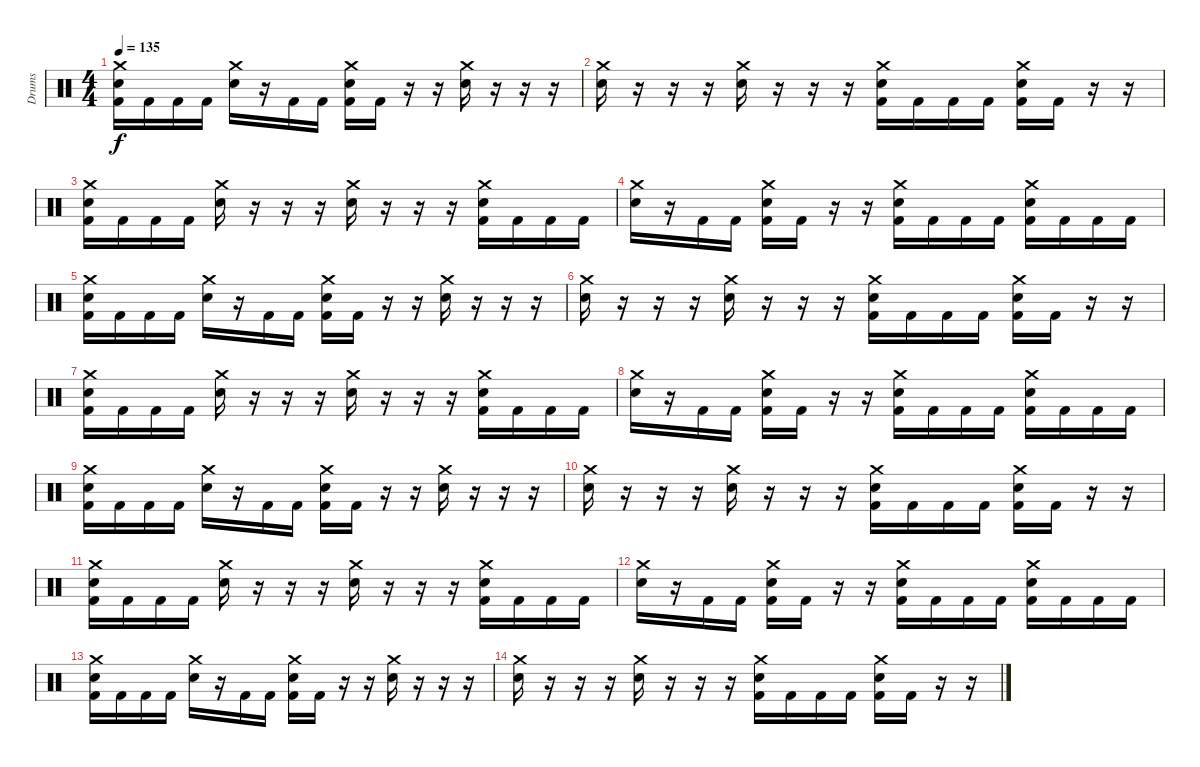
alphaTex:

\track ("Drums" "Drums") {instrument percussion}
\staff {score}
\articulation defaults
\ts (4 4)
\tempo 135
\clef neutral
\ks c
("Crash medium (hit)" "Snare (hit) 2" "Kick (hit) 2").16{dy f} "Kick (hit) 2".16 "Kick (hit) 2".16 "Kick (hit) 2".16 ("Crash medium (hit)" "Snare (hit) 2").16 r.16 "Kick (hit) 2".16 "Kick (hit) 2".16 ("Crash medium (hit)" "Snare (hit) 2" "Kick (hit) 2").16 "Kick (hit) 2".16 r.16 r.16 ("Crash medium (hit)" "Snare (hit) 2").16 r.16 r.16 r.16 |
("Crash medium (hit)" "Snare (hit) 2").16 r.16 r.16 r.16 ("Crash medium (hit)" "Snare (hit) 2").16 r.16 r.16 r.16 ("Crash medium (hit)" "Snare (hit) 2" "Kick (hit) 2").16 "Kick (hit) 2".16 "Kick (hit) 2".16 "Kick (hit) 2".16 ("Crash medium (hit)" "Snare (hit) 2" "Kick (hit) 2").16 "Kick (hit) 2".16 r.16 r.16 |
("Crash medium (hit)" "Snare (hit) 2" "Kick (hit) 2").16 "Kick (hit) 2".16 "Kick (hit) 2".16 "Kick (hit) 2".16 ("Crash medium (hit)" "Snare (hit) 2").16 r.16 r.16 r.16 ("Crash medium (hit)" "Snare (hit) 2").16 r.16 r.16 r.16 ("Crash medium (hit)" "Snare (hit) 2" "Kick (hit) 2").16 "Kick (hit) 2".16 "Kick (hit) 2".16 "Kick (hit) 2".16 |
("Crash medium (hit)" "Snare (hit) 2").16 r.16 "Kick (hit) 2".16 "Kick (hit) 2".16 ("Crash medium (hit)" "Snare (hit) 2" "Kick (hit) 2").16 "Kick (hit) 2".16 r.16 r.16 ("Crash medium (hit)" "Snare (hit) 2" "Kick (hit) 2").16 "Kick (hit) 2".16 "Kick (hit) 2".16 "Kick (hit) 2".16 ("Crash medium (hit)" "Snare (hit) 2" "Kick (hit) 2").16 "Kick (hit) 2".16 "Kick (hit) 2".16 "Kick (hit) 2".16 |
("Crash medium (hit)" "Snare (hit) 2" "Kick (hit) 2").16 "Kick (hit) 2".16 "Kick (hit) 2".16 "Kick (hit) 2".16 ("Crash medium (hit)" "Snare (hit) 2").16 r.16 "Kick (hit) 2".16 "Kick (hit) 2".16 ("Crash medium (hit)" "Snare (hit) 2" "Kick (hit) 2").16 "Kick (hit) 2".16 r.16 r.16 ("Crash medium (hit)" "Snare (hit) 2").16 r.16 r.16 r.16 |
("Crash medium (hit)" "Snare (hit) 2").16 r.16 r.16 r.16 ("Crash medium (hit)" "Snare (hit) 2").16 r.16 r.16 r.16 ("Crash medium (hit)" "Snare (hit) 2" "Kick (hit) 2").16 "Kick (hit) 2".16 "Kick (hit) 2".16 "Kick (hit) 2".16 ("Crash medium (hit)" "Snare (hit) 2" "Kick (hit) 2").16 "Kick (hit) 2".16 r.16 r.16 |
("Crash medium (hit)" "Snare (hit) 2" "Kick (hit) 2").16 "Kick (hit) 2".16 "Kick (hit) 2".16 "Kick (hit) 2".16 ("Crash medium (hit)" "Snare (hit) 2").16 r.16 r.16 r.16 ("Crash medium (hit)" "Snare (hit) 2").16 r.16 r.16 r.16 ("Crash medium (hit)" "Snare (hit) 2" "Kick (hit) 2").16 "Kick (hit) 2".16 "Kick (hit) 2".16 "Kick (hit) 2".16 |
("Crash medium (hit)" "Snare (hit) 2").16 r.16 "Kick (hit) 2".16 "Kick (hit) 2".16 ("Crash medium (hit)" "Snare (hit) 2" "Kick (hit) 2").16 "Kick (hit) 2".16 r.16 r.16 ("Crash medium (hit)" "Snare (hit) 2" "Kick (hit) 2").16 "Kick (hit) 2".16 "Kick (hit) 2".16 "Kick (hit) 2".16 ("Crash medium (hit)" "Snare (hit) 2" "Kick (hit) 2").16 "Kick (hit) 2".16 "Kick (hit) 2".16 "Kick (hit) 2".16 |
("Crash medium (hit)" "Snare (hit) 2" "Kick (hit) 2").16 "Kick (hit) 2".16 "Kick (hit) 2".16 "Kick (hit) 2".16 ("Crash medium (hit)" "Snare (hit) 2").16 r.16 "Kick (hit) 2".16 "Kick (hit) 2".16 ("Crash medium (hit)" "Snare (hit) 2" "Kick (hit) 2").16 "Kick (hit) 2".16 r.16 r.16 ("Crash medium (hit)" "Snare (hit) 2").16 r.16 r.16 r.16 |
("Crash medium (hit)" "Snare (hit) 2").16 r.16 r.16 r.16 ("Crash medium (hit)" "Snare (hit) 2").16 r.16 r.16 r.16 ("Crash medium (hit)" "Snare (hit) 2" "Kick (hit) 2").16 "Kick (hit) 2".16 "Kick (hit) 2".16 "Kick (hit) 2".16 ("Crash medium (hit)" "Snare (hit) 2" "Kick (hit) 2").16 "Kick (hit) 2".16 r.16 r.16 |
("Crash medium (hit)" "Snare (hit) 2" "Kick (hit) 2").16 "Kick (hit) 2".16 "Kick (hit) 2".16 "Kick (hit) 2".16 ("Crash medium (hit)" "Snare (hit) 2").16 r.16 r.16 r.16 ("Crash medium (hit)" "Snare (hit) 2").16 r.16 r.16 r.16 ("Crash medium (hit)" "Snare (hit) 2" "Kick (hit) 2").16 "Kick (hit) 2".16 "Kick (hit) 2".16 "Kick (hit) 2".16 |
("Crash medium (hit)" "Snare (hit) 2").16 r.16 "Kick (hit) 2".16 "Kick (hit) 2".16 ("Crash medium (hit)" "Snare (hit) 2" "Kick (hit) 2").16 "Kick (hit) 2".16 r.16 r.16 ("Crash medium (hit)" "Snare (hit) 2" "Kick (hit) 2").16 "Kick (hit) 2".16 "Kick (hit) 2".16 "Kick (hit) 2".16 ("Crash medium (hit)" "Snare (hit) 2" "Kick (hit) 2").16 "Kick (hit) 2".16 "Kick (hit) 2".16 "Kick (hit) 2".16 |
("Crash medium (hit)" "Snare (hit) 2" "Kick (hit) 2").16 "Kick (hit) 2".16 "Kick (hit) 2".16 "Kick (hit) 2".16 ("Crash medium (hit)" "Snare (hit) 2").16 r.16 "Kick (hit) 2".16 "Kick (hit) 2".16 ("Crash medium (hit)" "Snare (hit) 2" "Kick (hit) 2").16 "Kick (hit) 2".16 r.16 r.16 ("Crash medium (hit)" "Snare (hit) 2").16 r.16 r.16 r.16 |
("Crash medium (hit)" "Snare (hit) 2").16 r.16 r.16 r.16 ("Crash medium (hit)" "Snare (hit) 2").16 r.16 r.16 r.16 ("Crash medium (hit)" "Snare (hit) 2" "Kick (hit) 2").16 "Kick (hit) 2".16 "Kick (hit) 2".16 "Kick (hit) 2".16 ("Crash medium (hit)" "Snare (hit) 2" "Kick (hit) 2").16 "Kick (hit) 2".16 r.16 r.16
